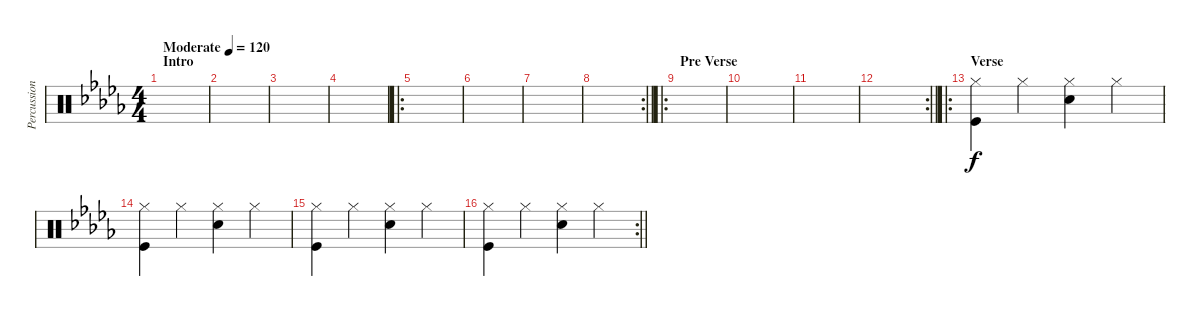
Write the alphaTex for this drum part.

\track ("Percussion" "Percussion") {instrument percussion}
\staff {score}
\articulation defaults
\ts (4 4)
\section ("" "Intro")
\tempo (120 "Moderate")
\clef neutral
\ks db
|
|
|
|
\ro
|
|
|
\rc 2
\barLineRight lightlight
|
\ro
\section ("" "Pre Verse")
|
|
|
\rc 2
\barLineRight lightlight
|
\ro
\section ("" "Verse")
("Hi-Hat (closed)" "Kick (hit)").4 "Hi-Hat (closed)".4 ("Hi-Hat (closed)" "Snare (hit) 2").4 "Hi-Hat (closed)".4 |
("Hi-Hat (closed)" "Kick (hit)").4 "Hi-Hat (closed)".4 ("Hi-Hat (closed)" "Snare (hit) 2").4 "Hi-Hat (closed)".4 |
("Hi-Hat (closed)" "Kick (hit)").4 "Hi-Hat (closed)".4 ("Hi-Hat (closed)" "Snare (hit) 2").4 "Hi-Hat (closed)".4 |
\rc 2
\barLineRight lightlight
("Hi-Hat (closed)" "Kick (hit)").4 "Hi-Hat (closed)".4 ("Hi-Hat (closed)" "Snare (hit) 2").4 "Hi-Hat (closed)".4
